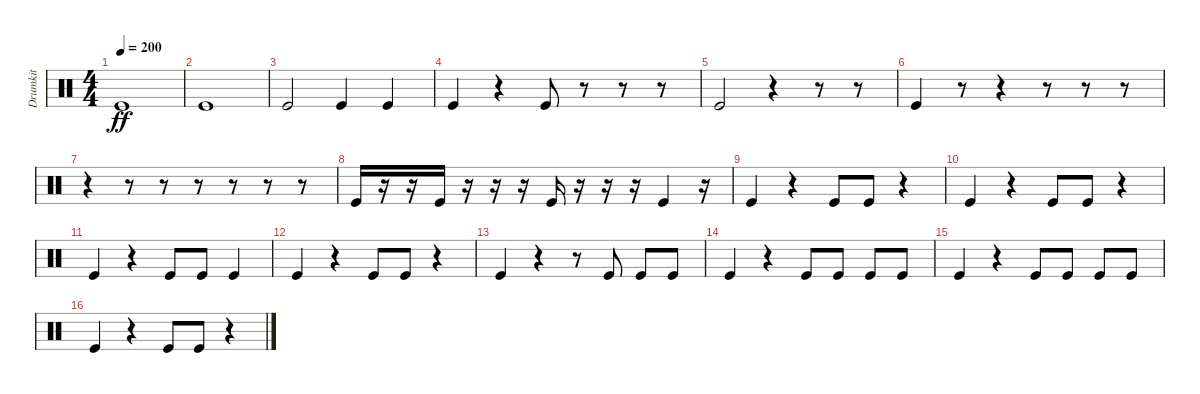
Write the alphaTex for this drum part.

\track ("Drumkit" "Drumkit") {instrument percussion}
\staff {score}
\articulation defaults
\ts (4 4)
\tempo 200
\clef neutral
\ks c "Kick (hit)".1{dy ff}
|
"Kick (hit)".1 |
"Kick (hit)".2 "Kick (hit)".4 "Kick (hit)".4 |
"Kick (hit)".4 r.4 "Kick (hit)".8 r.8 r.8 r.8 |
"Kick (hit)".2 r.4 r.8 r.8 |
"Kick (hit)".4 r.8 r.4 r.8 r.8 r.8 |
r.4 r.8 r.8 r.8 r.8 r.8 r.8 |
"Kick (hit)".16 r.16 r.16 "Kick (hit)".16 r.16 r.16 r.16 "Kick (hit)".16 r.16 r.16 r.16 "Kick (hit)".4 r.16 |
"Kick (hit)".4 r.4 "Kick (hit)".8 "Kick (hit)".8 r.4 |
"Kick (hit)".4 r.4 "Kick (hit)".8 "Kick (hit)".8 r.4 |
"Kick (hit)".4 r.4 "Kick (hit)".8 "Kick (hit)".8 "Kick (hit)".4 |
"Kick (hit)".4 r.4 "Kick (hit)".8 "Kick (hit)".8 r.4 |
"Kick (hit)".4 r.4 r.8 "Kick (hit)".8 "Kick (hit)".8 "Kick (hit)".8 |
"Kick (hit)".4 r.4 "Kick (hit)".8 "Kick (hit)".8 "Kick (hit)".8 "Kick (hit)".8 |
"Kick (hit)".4 r.4 "Kick (hit)".8 "Kick (hit)".8 "Kick (hit)".8 "Kick (hit)".8 |
"Kick (hit)".4 r.4 "Kick (hit)".8 "Kick (hit)".8 r.4
